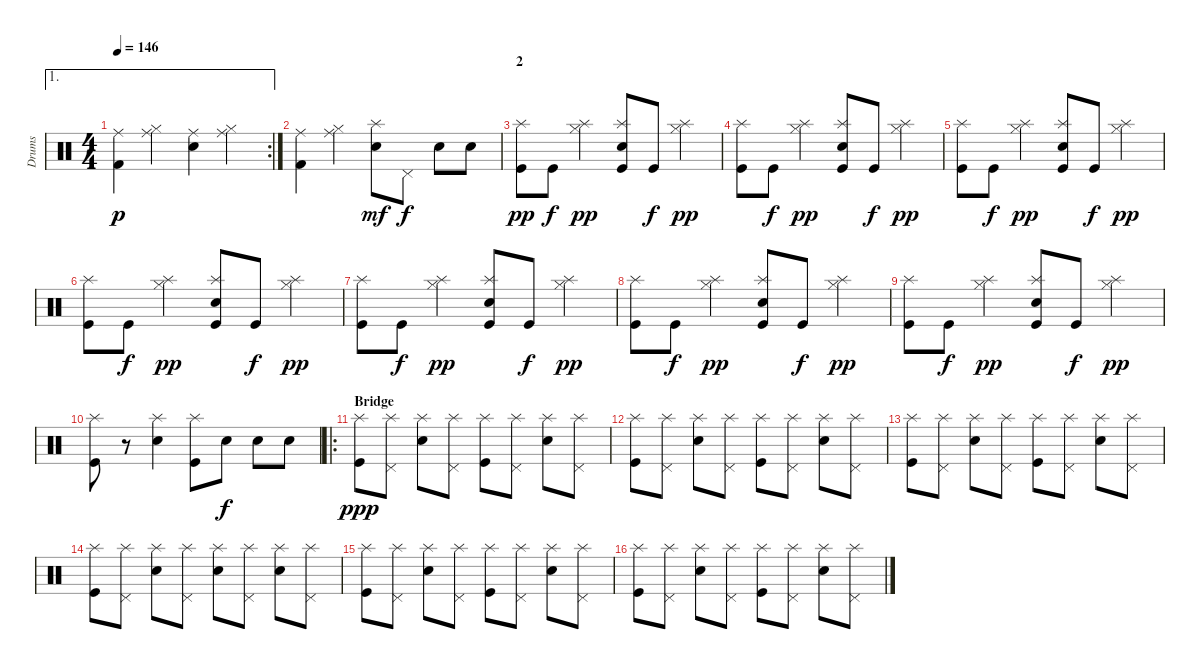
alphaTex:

\track ("Drums" "Drums") {instrument percussion}
\staff {score}
\articulation defaults
\ae 1
\rc 2
\ts (4 4)
\tempo 146
\clef neutral
\ks c
("Kick (hit) 2" "Ride (middle)").4{dy p} ("Hi-Hat (closed)" "Ride (middle)").4 ("Electric Snare (hit)" "Ride (middle)").4 ("Hi-Hat (closed)" "Ride (middle)").4 |
("Kick (hit) 2" "Ride (middle)").4 ("Hi-Hat (closed)" "Ride (middle)").4 ("Electric Snare (hit)" "Splash (hit)").8{dy mf} "Pedal Hi-Hat (hit)".8{dy f} "Electric Snare (hit)".8 "Electric Snare (hit)".8 |
\section ("" "2")
("Kick (hit)" "Splash (hit)").8{dy pp} "Kick (hit)".8{dy f} ("Hi-Hat (closed)" "Splash (hit)").4{dy pp} ("Kick (hit)" "Electric Snare (hit)" "Splash (hit)").8 "Kick (hit)".8{dy f} ("Hi-Hat (closed)" "Splash (hit)").4{dy pp} |
("Kick (hit)" "Splash (hit)").8 "Kick (hit)".8{dy f} ("Hi-Hat (closed)" "Splash (hit)").4{dy pp} ("Kick (hit)" "Electric Snare (hit)" "Splash (hit)").8 "Kick (hit)".8{dy f} ("Hi-Hat (closed)" "Splash (hit)").4{dy pp} |
("Kick (hit)" "Splash (hit)").8 "Kick (hit)".8{dy f} ("Hi-Hat (closed)" "Splash (hit)").4{dy pp} ("Kick (hit)" "Electric Snare (hit)" "Splash (hit)").8 "Kick (hit)".8{dy f} ("Hi-Hat (closed)" "Splash (hit)").4{dy pp} |
("Kick (hit)" "Splash (hit)").8 "Kick (hit)".8{dy f} ("Hi-Hat (closed)" "Splash (hit)").4{dy pp} ("Kick (hit)" "Electric Snare (hit)" "Splash (hit)").8 "Kick (hit)".8{dy f} ("Hi-Hat (closed)" "Splash (hit)").4{dy pp} |
("Kick (hit)" "Splash (hit)").8 "Kick (hit)".8{dy f} ("Hi-Hat (closed)" "Splash (hit)").4{dy pp} ("Kick (hit)" "Electric Snare (hit)" "Splash (hit)").8 "Kick (hit)".8{dy f} ("Hi-Hat (closed)" "Splash (hit)").4{dy pp} |
("Kick (hit)" "Splash (hit)").8 "Kick (hit)".8{dy f} ("Hi-Hat (closed)" "Splash (hit)").4{dy pp} ("Kick (hit)" "Electric Snare (hit)" "Splash (hit)").8 "Kick (hit)".8{dy f} ("Hi-Hat (closed)" "Splash (hit)").4{dy pp} |
("Kick (hit)" "Splash (hit)").8 "Kick (hit)".8{dy f} ("Hi-Hat (closed)" "Splash (hit)").4{dy pp} ("Kick (hit)" "Electric Snare (hit)" "Splash (hit)").8 "Kick (hit)".8{dy f} ("Hi-Hat (closed)" "Splash (hit)").4{dy pp} |
("Kick (hit)" "Splash (hit)").8 r.8 ("Electric Snare (hit)" "Splash (hit)").4 ("Kick (hit)" "Splash (hit)").8 "Electric Snare (hit)".8{dy f} "Electric Snare (hit)".8 "Electric Snare (hit)".8 |
\ro
\section ("" "Bridge")
("Kick (hit)" "Splash (hit)").8{dy ppp} ("Pedal Hi-Hat (hit)" "Splash (hit)").8 ("Electric Snare (hit)" "Splash (hit)").8 ("Pedal Hi-Hat (hit)" "Splash (hit)").8 ("Kick (hit)" "Splash (hit)").8 ("Pedal Hi-Hat (hit)" "Splash (hit)").8 ("Electric Snare (hit)" "Splash (hit)").8 ("Pedal Hi-Hat (hit)" "Splash (hit)").8 |
("Kick (hit)" "Splash (hit)").8 ("Pedal Hi-Hat (hit)" "Splash (hit)").8 ("Electric Snare (hit)" "Splash (hit)").8 ("Pedal Hi-Hat (hit)" "Splash (hit)").8 ("Kick (hit)" "Splash (hit)").8 ("Pedal Hi-Hat (hit)" "Splash (hit)").8 ("Electric Snare (hit)" "Splash (hit)").8 ("Pedal Hi-Hat (hit)" "Splash (hit)").8 |
("Kick (hit)" "Splash (hit)").8 ("Pedal Hi-Hat (hit)" "Splash (hit)").8 ("Electric Snare (hit)" "Splash (hit)").8 ("Pedal Hi-Hat (hit)" "Splash (hit)").8 ("Kick (hit)" "Splash (hit)").8 ("Pedal Hi-Hat (hit)" "Splash (hit)").8 ("Electric Snare (hit)" "Splash (hit)").8 ("Pedal Hi-Hat (hit)" "Splash (hit)").8 |
("Kick (hit)" "Splash (hit)").8 ("Pedal Hi-Hat (hit)" "Splash (hit)").8 ("Electric Snare (hit)" "Splash (hit)").8 ("Pedal Hi-Hat (hit)" "Splash (hit)").8 ("Electric Snare (hit)" "Splash (hit)").8 ("Pedal Hi-Hat (hit)" "Splash (hit)").8 ("Electric Snare (hit)" "Splash (hit)").8 ("Pedal Hi-Hat (hit)" "Splash (hit)").8 |
("Kick (hit)" "Splash (hit)").8 ("Pedal Hi-Hat (hit)" "Splash (hit)").8 ("Electric Snare (hit)" "Splash (hit)").8 ("Pedal Hi-Hat (hit)" "Splash (hit)").8 ("Kick (hit)" "Splash (hit)").8 ("Pedal Hi-Hat (hit)" "Splash (hit)").8 ("Electric Snare (hit)" "Splash (hit)").8 ("Pedal Hi-Hat (hit)" "Splash (hit)").8 |
("Kick (hit)" "Splash (hit)").8 ("Pedal Hi-Hat (hit)" "Splash (hit)").8 ("Electric Snare (hit)" "Splash (hit)").8 ("Pedal Hi-Hat (hit)" "Splash (hit)").8 ("Kick (hit)" "Splash (hit)").8 ("Pedal Hi-Hat (hit)" "Splash (hit)").8 ("Electric Snare (hit)" "Splash (hit)").8 ("Pedal Hi-Hat (hit)" "Splash (hit)").8
